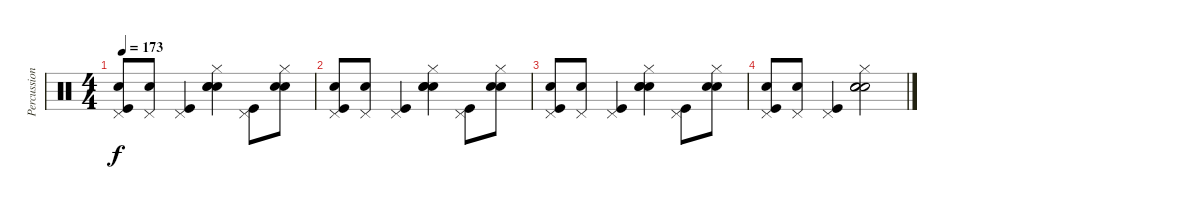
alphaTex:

\track ("Percussion" "Percussion") {instrument percussion}
\staff {score}
\articulation defaults
\ts (4 4)
\tempo 173
\clef neutral
\ks c
("Hand Clap (hit)" "Pedal Hi-Hat (hit)" "Kick (hit)").8{dy f} ("Pedal Hi-Hat (hit)" "Electric Snare (hit)").8 ("Pedal Hi-Hat (hit)" "Kick (hit)").4 ("Hand Clap (hit)" "Hand Clap (hit)" "Hi-Hat (closed)" "Electric Snare (hit)").4 ("Pedal Hi-Hat (hit)" "Kick (hit)").8 ("Hand Clap (hit)" "Hi-Hat (closed)" "Electric Snare (hit)").8 |
("Hand Clap (hit)" "Pedal Hi-Hat (hit)" "Kick (hit)").8 ("Pedal Hi-Hat (hit)" "Electric Snare (hit)").8 ("Pedal Hi-Hat (hit)" "Kick (hit)").4 ("Hand Clap (hit)" "Hand Clap (hit)" "Hi-Hat (closed)" "Electric Snare (hit)").4 ("Pedal Hi-Hat (hit)" "Kick (hit)").8 ("Hand Clap (hit)" "Hi-Hat (closed)" "Electric Snare (hit)").8 |
("Hand Clap (hit)" "Pedal Hi-Hat (hit)" "Kick (hit)").8 ("Pedal Hi-Hat (hit)" "Electric Snare (hit)").8 ("Pedal Hi-Hat (hit)" "Kick (hit)").4 ("Hand Clap (hit)" "Hand Clap (hit)" "Hi-Hat (closed)" "Electric Snare (hit)").4{volume 0} ("Pedal Hi-Hat (hit)" "Kick (hit)").8 ("Hand Clap (hit)" "Hi-Hat (closed)" "Electric Snare (hit)").8 |
("Hand Clap (hit)" "Pedal Hi-Hat (hit)" "Kick (hit)").8 ("Pedal Hi-Hat (hit)" "Electric Snare (hit)").8 ("Pedal Hi-Hat (hit)" "Kick (hit)").4 ("Hand Clap (hit)" "Hand Clap (hit)" "Hi-Hat (closed)" "Electric Snare (hit)").2
